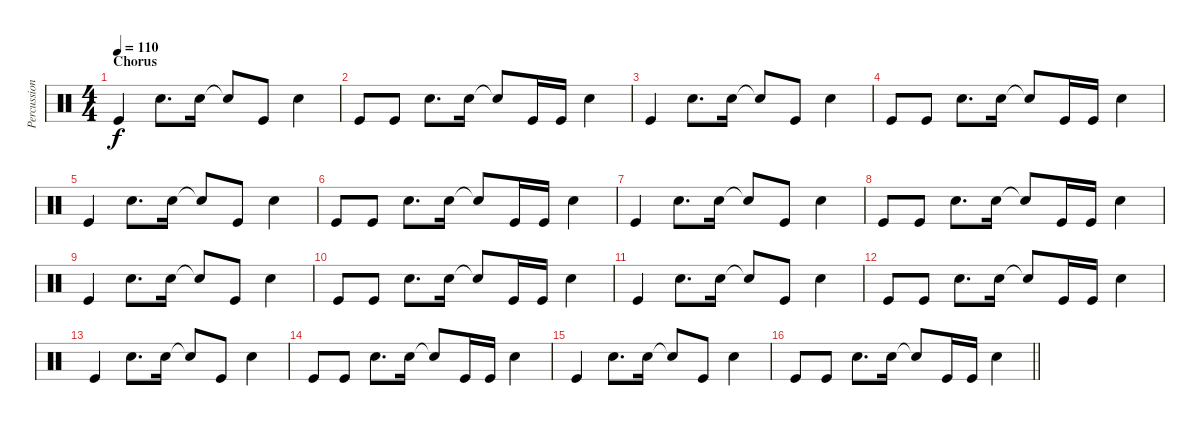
\track ("Percussion" "Percussion") {instrument percussion}
\staff {score}
\articulation defaults
\ts (4 4)
\section ("" "Chorus")
\tempo 110
\clef neutral
\ks c "Kick (hit)".4{dy f} "Snare (hit) 2".8{d} "Snare (hit) 2".16 "Snare (hit) 2"{t}.8 "Kick (hit)".8 "Snare (hit) 2".4
|
"Kick (hit)".8 "Kick (hit)".8 "Snare (hit) 2".8{d} "Snare (hit) 2".16 "Snare (hit) 2"{t}.8 "Kick (hit)".16 "Kick (hit)".16 "Snare (hit) 2".4 |
"Kick (hit)".4 "Snare (hit) 2".8{d} "Snare (hit) 2".16 "Snare (hit) 2"{t}.8 "Kick (hit)".8 "Snare (hit) 2".4 |
"Kick (hit)".8 "Kick (hit)".8 "Snare (hit) 2".8{d} "Snare (hit) 2".16 "Snare (hit) 2"{t}.8 "Kick (hit)".16 "Kick (hit)".16 "Snare (hit) 2".4 |
"Kick (hit)".4 "Snare (hit) 2".8{d} "Snare (hit) 2".16 "Snare (hit) 2"{t}.8 "Kick (hit)".8 "Snare (hit) 2".4 |
"Kick (hit)".8 "Kick (hit)".8 "Snare (hit) 2".8{d} "Snare (hit) 2".16 "Snare (hit) 2"{t}.8 "Kick (hit)".16 "Kick (hit)".16 "Snare (hit) 2".4 |
"Kick (hit)".4 "Snare (hit) 2".8{d} "Snare (hit) 2".16 "Snare (hit) 2"{t}.8 "Kick (hit)".8 "Snare (hit) 2".4 |
"Kick (hit)".8 "Kick (hit)".8 "Snare (hit) 2".8{d} "Snare (hit) 2".16 "Snare (hit) 2"{t}.8 "Kick (hit)".16 "Kick (hit)".16 "Snare (hit) 2".4 |
"Kick (hit)".4 "Snare (hit) 2".8{d} "Snare (hit) 2".16 "Snare (hit) 2"{t}.8 "Kick (hit)".8 "Snare (hit) 2".4 |
"Kick (hit)".8 "Kick (hit)".8 "Snare (hit) 2".8{d} "Snare (hit) 2".16 "Snare (hit) 2"{t}.8 "Kick (hit)".16 "Kick (hit)".16 "Snare (hit) 2".4 |
"Kick (hit)".4 "Snare (hit) 2".8{d} "Snare (hit) 2".16 "Snare (hit) 2"{t}.8 "Kick (hit)".8 "Snare (hit) 2".4 |
"Kick (hit)".8 "Kick (hit)".8 "Snare (hit) 2".8{d} "Snare (hit) 2".16 "Snare (hit) 2"{t}.8 "Kick (hit)".16 "Kick (hit)".16 "Snare (hit) 2".4 |
"Kick (hit)".4 "Snare (hit) 2".8{d} "Snare (hit) 2".16 "Snare (hit) 2"{t}.8 "Kick (hit)".8 "Snare (hit) 2".4 |
"Kick (hit)".8 "Kick (hit)".8 "Snare (hit) 2".8{d} "Snare (hit) 2".16 "Snare (hit) 2"{t}.8 "Kick (hit)".16 "Kick (hit)".16 "Snare (hit) 2".4 |
"Kick (hit)".4 "Snare (hit) 2".8{d} "Snare (hit) 2".16 "Snare (hit) 2"{t}.8 "Kick (hit)".8 "Snare (hit) 2".4 |
\barLineRight lightlight "Kick (hit)".8 "Kick (hit)".8 "Snare (hit) 2".8{d} "Snare (hit) 2".16 "Snare (hit) 2"{t}.8 "Kick (hit)".16 "Kick (hit)".16 "Snare (hit) 2".4
